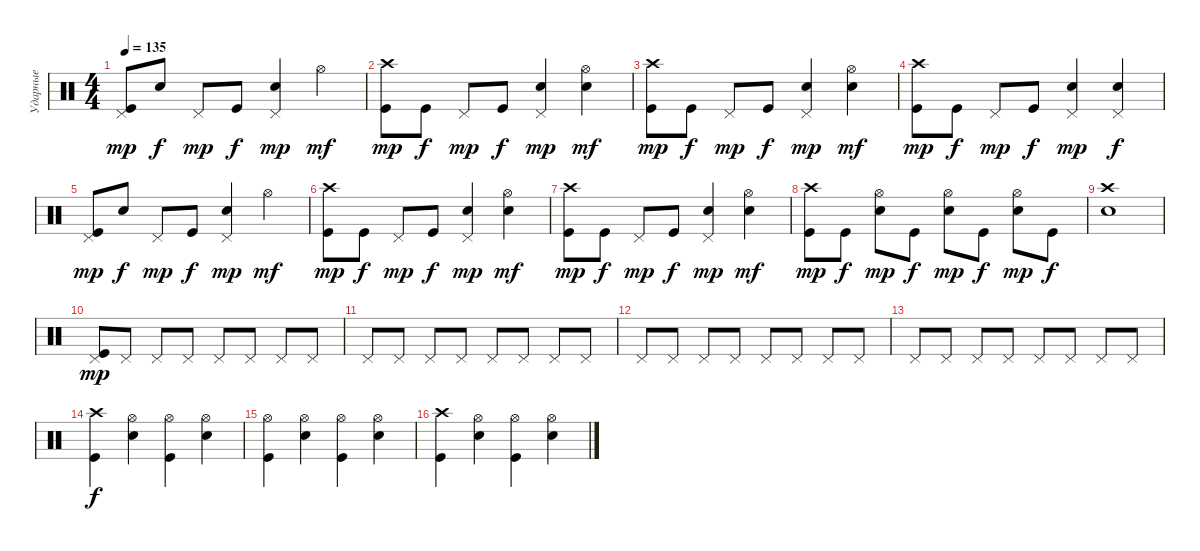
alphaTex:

\track ("Ударные" "Ударные") {instrument percussion}
\staff {score}
\articulation defaults
\ts (4 4)
\tempo 135
\clef neutral
\ks c
("Pedal Hi-Hat (hit)" "Kick (hit)").8{dy mp} "Snare (hit) 2".8{dy f} "Pedal Hi-Hat (hit)".8{dy mp} "Kick (hit)".8{dy f} ("Pedal Hi-Hat (hit)" "Snare (hit) 2").4{dy mp} "Hi-Hat (open)".4{dy mf} |
("Crash high (hit)" "Kick (hit)").8{dy mp} "Kick (hit)".8{dy f} "Pedal Hi-Hat (hit)".8{dy mp} "Kick (hit)".8{dy f} ("Pedal Hi-Hat (hit)" "Snare (hit) 2").4{dy mp} ("Hi-Hat (open)" "Snare (hit) 2").4{dy mf} |
("Crash high (hit)" "Kick (hit)").8{dy mp} "Kick (hit)".8{dy f} "Pedal Hi-Hat (hit)".8{dy mp} "Kick (hit)".8{dy f} ("Pedal Hi-Hat (hit)" "Snare (hit) 2").4{dy mp} ("Hi-Hat (open)" "Snare (hit) 2").4{dy mf} |
("Crash high (hit)" "Kick (hit)").8{dy mp} "Kick (hit)".8{dy f} "Pedal Hi-Hat (hit)".8{dy mp} "Kick (hit)".8{dy f} ("Pedal Hi-Hat (hit)" "Snare (hit) 2").4{dy mp} ("Pedal Hi-Hat (hit)" "Snare (hit) 2").4{dy f} |
("Pedal Hi-Hat (hit)" "Kick (hit)").8{dy mp} "Snare (hit) 2".8{dy f} "Pedal Hi-Hat (hit)".8{dy mp} "Kick (hit)".8{dy f} ("Pedal Hi-Hat (hit)" "Snare (hit) 2").4{dy mp} "Hi-Hat (open)".4{dy mf} |
("Crash high (hit)" "Kick (hit)").8{dy mp} "Kick (hit)".8{dy f} "Pedal Hi-Hat (hit)".8{dy mp} "Kick (hit)".8{dy f} ("Pedal Hi-Hat (hit)" "Snare (hit) 2").4{dy mp} ("Hi-Hat (open)" "Snare (hit) 2").4{dy mf} |
("Crash high (hit)" "Kick (hit)").8{dy mp} "Kick (hit)".8{dy f} "Pedal Hi-Hat (hit)".8{dy mp} "Kick (hit)".8{dy f} ("Pedal Hi-Hat (hit)" "Snare (hit) 2").4{dy mp} ("Hi-Hat (open)" "Snare (hit) 2").4{dy mf} |
("Crash high (hit)" "Kick (hit)").8{dy mp} "Kick (hit)".8{dy f} ("Hi-Hat (open)" "Snare (hit) 2").8{dy mp} "Kick (hit)".8{dy f} ("Hi-Hat (open)" "Snare (hit) 2").8{dy mp} "Kick (hit)".8{dy f} ("Hi-Hat (open)" "Snare (hit) 2").8{dy mp} "Kick (hit)".8{dy f} |
("Crash high (hit)" "Snare (hit) 2").1 |
("Pedal Hi-Hat (hit)" "Kick (hit)").8{dy mp} "Pedal Hi-Hat (hit)".8 "Pedal Hi-Hat (hit)".8 "Pedal Hi-Hat (hit)".8 "Pedal Hi-Hat (hit)".8 "Pedal Hi-Hat (hit)".8 "Pedal Hi-Hat (hit)".8 "Pedal Hi-Hat (hit)".8 |
"Pedal Hi-Hat (hit)".8 "Pedal Hi-Hat (hit)".8 "Pedal Hi-Hat (hit)".8 "Pedal Hi-Hat (hit)".8 "Pedal Hi-Hat (hit)".8 "Pedal Hi-Hat (hit)".8 "Pedal Hi-Hat (hit)".8 "Pedal Hi-Hat (hit)".8 |
"Pedal Hi-Hat (hit)".8 "Pedal Hi-Hat (hit)".8 "Pedal Hi-Hat (hit)".8 "Pedal Hi-Hat (hit)".8 "Pedal Hi-Hat (hit)".8 "Pedal Hi-Hat (hit)".8 "Pedal Hi-Hat (hit)".8 "Pedal Hi-Hat (hit)".8 |
"Pedal Hi-Hat (hit)".8 "Pedal Hi-Hat (hit)".8 "Pedal Hi-Hat (hit)".8 "Pedal Hi-Hat (hit)".8 "Pedal Hi-Hat (hit)".8 "Pedal Hi-Hat (hit)".8 "Pedal Hi-Hat (hit)".8 "Pedal Hi-Hat (hit)".8 |
("Crash high (hit)" "Kick (hit)").4{dy f} ("Hi-Hat (open)" "Snare (hit) 2").4 ("Hi-Hat (open)" "Kick (hit)").4 ("Hi-Hat (open)" "Snare (hit) 2").4 |
("Hi-Hat (open)" "Kick (hit)").4 ("Hi-Hat (open)" "Snare (hit) 2").4 ("Hi-Hat (open)" "Kick (hit)").4 ("Hi-Hat (open)" "Snare (hit) 2").4 |
("Crash high (hit)" "Kick (hit)").4 ("Hi-Hat (open)" "Snare (hit) 2").4 ("Hi-Hat (open)" "Kick (hit)").4 ("Hi-Hat (open)" "Snare (hit) 2").4
